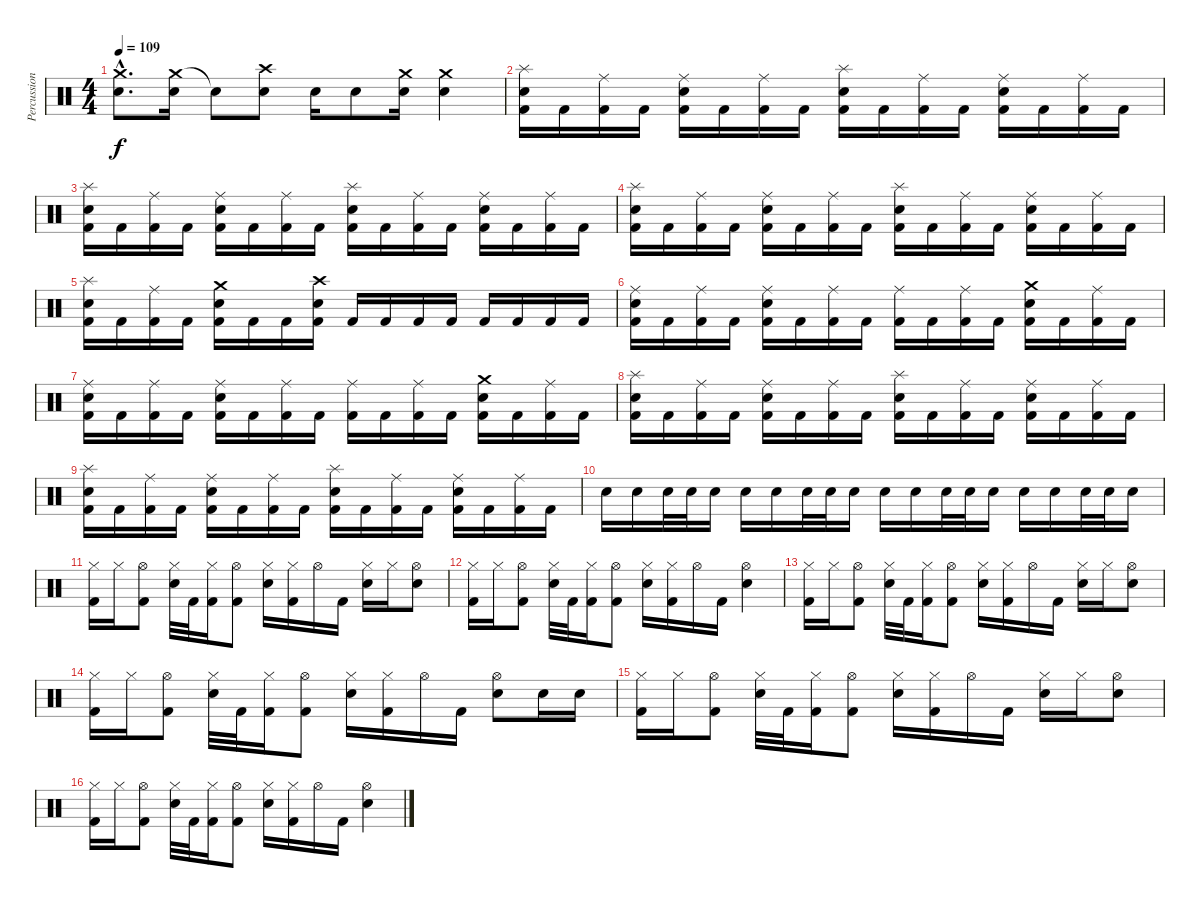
\track ("Percussions" "Percussion") {instrument percussion}
\staff {score}
\articulation defaults
\ts (4 4)
\tempo 109
\clef neutral
\ks c
("Crash medium (hit)"{hac} "Electric Snare (hit)"{hac}).8{d dy f} ("Crash medium (hit)" "Electric Snare (hit)").16 "Snare (hit)"{t}.8 ("Crash high (hit)" "Electric Snare (hit)").8 "Electric Snare (hit)".16 "Electric Snare (hit)".8 ("Crash medium (hit)" "Electric Snare (hit)").16 ("Crash medium (hit)" "Electric Snare (hit)").4 |
("Splash (hit)" "Electric Snare (hit)" "Kick (hit) 2").16 "Kick (hit) 2".16 ("Ride (middle)" "Kick (hit) 2").16 "Kick (hit) 2".16 ("Ride (middle)" "Electric Snare (hit)" "Kick (hit) 2").16 "Kick (hit) 2".16 ("Ride (middle)" "Kick (hit) 2").16 "Kick (hit) 2".16 ("Splash (hit)" "Electric Snare (hit)" "Kick (hit) 2").16 "Kick (hit) 2".16 ("Ride (middle)" "Kick (hit) 2").16 "Kick (hit) 2".16 ("Ride (middle)" "Electric Snare (hit)" "Kick (hit) 2").16 "Kick (hit) 2".16 ("Ride (middle)" "Kick (hit) 2").16 "Kick (hit) 2".16 |
("Splash (hit)" "Electric Snare (hit)" "Kick (hit) 2").16 "Kick (hit) 2".16 ("Ride (middle)" "Kick (hit) 2").16 "Kick (hit) 2".16 ("Ride (middle)" "Electric Snare (hit)" "Kick (hit) 2").16 "Kick (hit) 2".16 ("Ride (middle)" "Kick (hit) 2").16 "Kick (hit) 2".16 ("Splash (hit)" "Electric Snare (hit)" "Kick (hit) 2").16 "Kick (hit) 2".16 ("Ride (middle)" "Kick (hit) 2").16 "Kick (hit) 2".16 ("Ride (middle)" "Electric Snare (hit)" "Kick (hit) 2").16 "Kick (hit) 2".16 ("Ride (middle)" "Kick (hit) 2").16 "Kick (hit) 2".16 |
("Splash (hit)" "Electric Snare (hit)" "Kick (hit) 2").16 "Kick (hit) 2".16 ("Ride (middle)" "Kick (hit) 2").16 "Kick (hit) 2".16 ("Ride (middle)" "Electric Snare (hit)" "Kick (hit) 2").16 "Kick (hit) 2".16 ("Ride (middle)" "Kick (hit) 2").16 "Kick (hit) 2".16 ("Splash (hit)" "Electric Snare (hit)" "Kick (hit) 2").16 "Kick (hit) 2".16 ("Ride (middle)" "Kick (hit) 2").16 "Kick (hit) 2".16 ("Ride (middle)" "Electric Snare (hit)" "Kick (hit) 2").16 "Kick (hit) 2".16 ("Ride (middle)" "Kick (hit) 2").16 "Kick (hit) 2".16 |
("Splash (hit)" "Electric Snare (hit)" "Kick (hit) 2").16 "Kick (hit) 2".16 ("Ride (middle)" "Kick (hit) 2").16 "Kick (hit) 2".16 ("Crash medium (hit)" "Electric Snare (hit)" "Kick (hit) 2").16 "Kick (hit) 2".16 "Kick (hit) 2".16 ("Crash high (hit)" "Electric Snare (hit)" "Kick (hit) 2").16 "Kick (hit) 2".16 "Kick (hit) 2".16 "Kick (hit) 2".16 "Kick (hit) 2".16 "Kick (hit) 2".16 "Kick (hit) 2".16 "Kick (hit) 2".16 "Kick (hit) 2".16 |
("Ride (middle)" "Electric Snare (hit)" "Kick (hit) 2").16 "Kick (hit) 2".16 ("Ride (middle)" "Kick (hit) 2").16 "Kick (hit) 2".16 ("Ride (middle)" "Electric Snare (hit)" "Kick (hit) 2").16 "Kick (hit) 2".16 ("Ride (middle)" "Kick (hit) 2").16 "Kick (hit) 2".16 ("Ride (middle)" "Kick (hit) 2").16 "Kick (hit) 2".16 ("Ride (middle)" "Kick (hit) 2").16 "Kick (hit) 2".16 ("Crash medium (hit)" "Electric Snare (hit)" "Kick (hit) 2").16 "Kick (hit) 2".16 ("Ride (middle)" "Kick (hit) 2").16 "Kick (hit) 2".16 |
("Ride (middle)" "Electric Snare (hit)" "Kick (hit) 2").16 "Kick (hit) 2".16 ("Ride (middle)" "Kick (hit) 2").16 "Kick (hit) 2".16 ("Ride (middle)" "Electric Snare (hit)" "Kick (hit) 2").16 "Kick (hit) 2".16 ("Ride (middle)" "Kick (hit) 2").16 "Kick (hit) 2".16 ("Ride (middle)" "Kick (hit) 2").16 "Kick (hit) 2".16 ("Ride (middle)" "Kick (hit) 2").16 "Kick (hit) 2".16 ("Crash medium (hit)" "Electric Snare (hit)" "Kick (hit) 2").16 "Kick (hit) 2".16 ("Ride (middle)" "Kick (hit) 2").16 "Kick (hit) 2".16 |
("Splash (hit)" "Electric Snare (hit)" "Kick (hit) 2").16 "Kick (hit) 2".16 ("Ride (middle)" "Kick (hit) 2").16 "Kick (hit) 2".16 ("Ride (middle)" "Electric Snare (hit)" "Kick (hit) 2").16 "Kick (hit) 2".16 ("Ride (middle)" "Kick (hit) 2").16 "Kick (hit) 2".16 ("Splash (hit)" "Electric Snare (hit)" "Kick (hit) 2").16 "Kick (hit) 2".16 ("Ride (middle)" "Kick (hit) 2").16 "Kick (hit) 2".16 ("Ride (middle)" "Electric Snare (hit)" "Kick (hit) 2").16 "Kick (hit) 2".16 ("Ride (middle)" "Kick (hit) 2").16 "Kick (hit) 2".16 |
("Splash (hit)" "Electric Snare (hit)" "Kick (hit) 2").16 "Kick (hit) 2".16 ("Ride (middle)" "Kick (hit) 2").16 "Kick (hit) 2".16 ("Ride (middle)" "Electric Snare (hit)" "Kick (hit) 2").16 "Kick (hit) 2".16 ("Ride (middle)" "Kick (hit) 2").16 "Kick (hit) 2".16 ("Splash (hit)" "Electric Snare (hit)" "Kick (hit) 2").16 "Kick (hit) 2".16 ("Ride (middle)" "Kick (hit) 2").16 "Kick (hit) 2".16 ("Ride (middle)" "Electric Snare (hit)" "Kick (hit) 2").16 "Kick (hit) 2".16 ("Ride (middle)" "Kick (hit) 2").16 "Kick (hit) 2".16 |
"Electric Snare (hit)".16 "Electric Snare (hit)".16 "Electric Snare (hit)".32 "Electric Snare (hit)".32 "Electric Snare (hit)".16 "Electric Snare (hit)".16 "Electric Snare (hit)".16 "Electric Snare (hit)".32 "Electric Snare (hit)".32 "Electric Snare (hit)".16 "Electric Snare (hit)".16 "Electric Snare (hit)".16 "Electric Snare (hit)".32 "Electric Snare (hit)".32 "Electric Snare (hit)".16 "Electric Snare (hit)".16 "Electric Snare (hit)".16 "Electric Snare (hit)".32 "Electric Snare (hit)".32 "Electric Snare (hit)".16 |
("Hi-Hat (closed)" "Kick (hit) 2").16 "Hi-Hat (closed)".16 ("Hi-Hat (open)" "Kick (hit) 2").8 ("Hi-Hat (closed)" "Electric Snare (hit)").32 "Kick (hit) 2".32 ("Hi-Hat (closed)" "Kick (hit) 2").16 ("Hi-Hat (open)" "Kick (hit) 2").8 ("Hi-Hat (closed)" "Electric Snare (hit)").16 ("Hi-Hat (closed)" "Kick (hit) 2").16 "Hi-Hat (open)".16 "Kick (hit) 2".16 ("Hi-Hat (closed)" "Electric Snare (hit)").16 "Hi-Hat (closed)".16 ("Hi-Hat (open)" "Electric Snare (hit)").8 |
("Hi-Hat (closed)" "Kick (hit) 2").16 "Hi-Hat (closed)".16 ("Hi-Hat (open)" "Kick (hit) 2").8 ("Hi-Hat (closed)" "Electric Snare (hit)").32 "Kick (hit) 2".32 ("Hi-Hat (closed)" "Kick (hit) 2").16 ("Hi-Hat (open)" "Kick (hit) 2").8 ("Hi-Hat (closed)" "Electric Snare (hit)").16 ("Hi-Hat (closed)" "Kick (hit) 2").16 "Hi-Hat (open)".16 "Kick (hit) 2".16 ("Hi-Hat (open)" "Electric Snare (hit)").4 |
("Hi-Hat (closed)" "Kick (hit) 2").16 "Hi-Hat (closed)".16 ("Hi-Hat (open)" "Kick (hit) 2").8 ("Hi-Hat (closed)" "Electric Snare (hit)").32 "Kick (hit) 2".32 ("Hi-Hat (closed)" "Kick (hit) 2").16 ("Hi-Hat (open)" "Kick (hit) 2").8 ("Hi-Hat (closed)" "Electric Snare (hit)").16 ("Hi-Hat (closed)" "Kick (hit) 2").16 "Hi-Hat (open)".16 "Kick (hit) 2".16 ("Hi-Hat (closed)" "Electric Snare (hit)").16 "Hi-Hat (closed)".16 ("Hi-Hat (open)" "Electric Snare (hit)").8 |
("Hi-Hat (closed)" "Kick (hit) 2").16 "Hi-Hat (closed)".16 ("Hi-Hat (open)" "Kick (hit) 2").8 ("Hi-Hat (closed)" "Electric Snare (hit)").32 "Kick (hit) 2".32 ("Hi-Hat (closed)" "Kick (hit) 2").16 ("Hi-Hat (open)" "Kick (hit) 2").8 ("Hi-Hat (closed)" "Electric Snare (hit)").16 ("Hi-Hat (closed)" "Kick (hit) 2").16 "Hi-Hat (open)".16 "Kick (hit) 2".16 ("Hi-Hat (open)" "Electric Snare (hit)").8 "Electric Snare (hit)".16 "Electric Snare (hit)".16 |
("Hi-Hat (closed)" "Kick (hit) 2").16 "Hi-Hat (closed)".16 ("Hi-Hat (open)" "Kick (hit) 2").8 ("Hi-Hat (closed)" "Electric Snare (hit)").32 "Kick (hit) 2".32 ("Hi-Hat (closed)" "Kick (hit) 2").16 ("Hi-Hat (open)" "Kick (hit) 2").8 ("Hi-Hat (closed)" "Electric Snare (hit)").16 ("Hi-Hat (closed)" "Kick (hit) 2").16 "Hi-Hat (open)".16 "Kick (hit) 2".16 ("Hi-Hat (closed)" "Electric Snare (hit)").16 "Hi-Hat (closed)".16 ("Hi-Hat (open)" "Electric Snare (hit)").8 |
("Hi-Hat (closed)" "Kick (hit) 2").16 "Hi-Hat (closed)".16 ("Hi-Hat (open)" "Kick (hit) 2").8 ("Hi-Hat (closed)" "Electric Snare (hit)").32 "Kick (hit) 2".32 ("Hi-Hat (closed)" "Kick (hit) 2").16 ("Hi-Hat (open)" "Kick (hit) 2").8 ("Hi-Hat (closed)" "Electric Snare (hit)").16 ("Hi-Hat (closed)" "Kick (hit) 2").16 "Hi-Hat (open)".16 "Kick (hit) 2".16 ("Hi-Hat (open)" "Electric Snare (hit)").4
